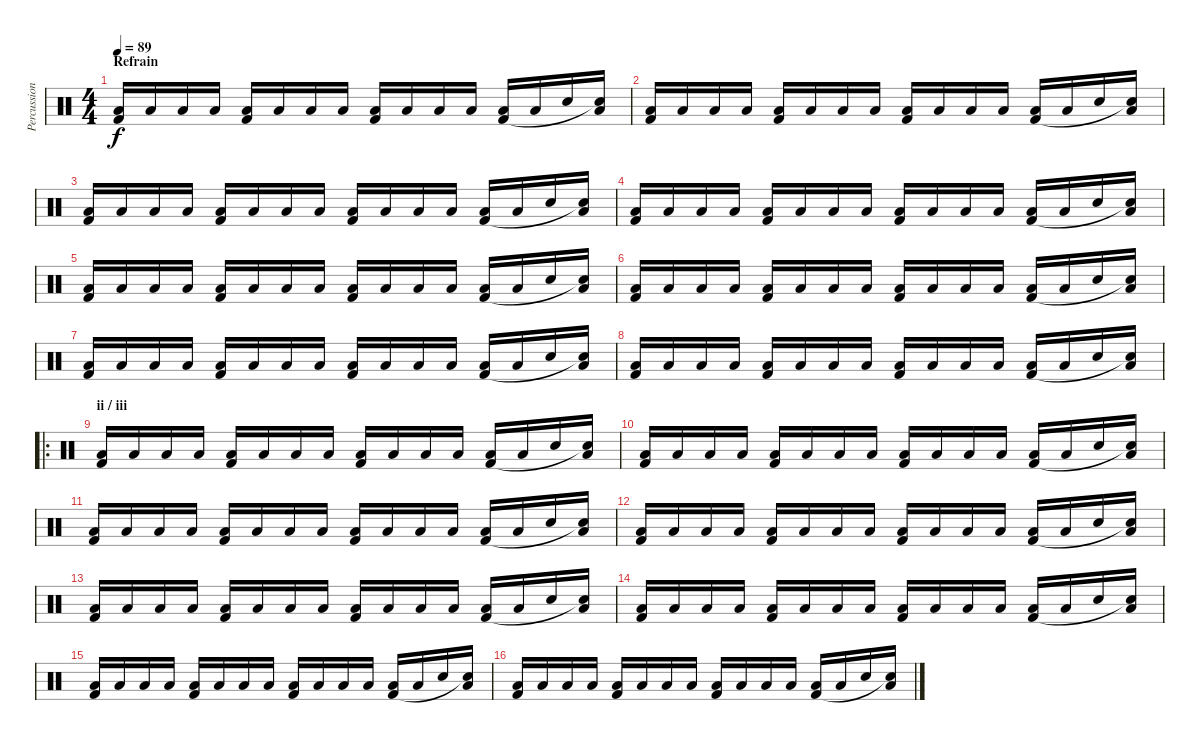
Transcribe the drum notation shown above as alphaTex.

\track ("Percussions" "Percussion") {instrument percussion}
\staff {score}
\articulation defaults
\ts (4 4)
\section ("" "Refrain")
\tempo 89
\clef neutral
\ks c
("Low Floor Tom (hit)" "Kick (hit) 2").16{dy f} "Low Floor Tom (hit)".16 "Low Floor Tom (hit)".16 "Low Floor Tom (hit)".16 ("Low Floor Tom (hit)" "Kick (hit) 2").16 "Low Floor Tom (hit)".16 "Low Floor Tom (hit)".16 "Low Floor Tom (hit)".16 ("Low Floor Tom (hit)" "Kick (hit) 2").16 "Low Floor Tom (hit)".16 "Low Floor Tom (hit)".16 "Low Floor Tom (hit)".16 ("Low Floor Tom (hit)" "Kick (hit) 2").16 "Low Floor Tom (hit)".16 "Electric Snare (hit)".16 ("Low Floor Tom (hit)" "Snare (hit)"{t}).16 |
("Low Floor Tom (hit)" "Kick (hit) 2").16 "Low Floor Tom (hit)".16 "Low Floor Tom (hit)".16 "Low Floor Tom (hit)".16 ("Low Floor Tom (hit)" "Kick (hit) 2").16 "Low Floor Tom (hit)".16 "Low Floor Tom (hit)".16 "Low Floor Tom (hit)".16 ("Low Floor Tom (hit)" "Kick (hit) 2").16 "Low Floor Tom (hit)".16 "Low Floor Tom (hit)".16 "Low Floor Tom (hit)".16 ("Low Floor Tom (hit)" "Kick (hit) 2").16 "Low Floor Tom (hit)".16 "Electric Snare (hit)".16 ("Low Floor Tom (hit)" "Snare (hit)"{t}).16 |
("Low Floor Tom (hit)" "Kick (hit) 2").16 "Low Floor Tom (hit)".16 "Low Floor Tom (hit)".16 "Low Floor Tom (hit)".16 ("Low Floor Tom (hit)" "Kick (hit) 2").16 "Low Floor Tom (hit)".16 "Low Floor Tom (hit)".16 "Low Floor Tom (hit)".16 ("Low Floor Tom (hit)" "Kick (hit) 2").16 "Low Floor Tom (hit)".16 "Low Floor Tom (hit)".16 "Low Floor Tom (hit)".16 ("Low Floor Tom (hit)" "Kick (hit) 2").16 "Low Floor Tom (hit)".16 "Electric Snare (hit)".16 ("Low Floor Tom (hit)" "Snare (hit)"{t}).16 |
("Low Floor Tom (hit)" "Kick (hit) 2").16 "Low Floor Tom (hit)".16 "Low Floor Tom (hit)".16 "Low Floor Tom (hit)".16 ("Low Floor Tom (hit)" "Kick (hit) 2").16 "Low Floor Tom (hit)".16 "Low Floor Tom (hit)".16 "Low Floor Tom (hit)".16 ("Low Floor Tom (hit)" "Kick (hit) 2").16 "Low Floor Tom (hit)".16 "Low Floor Tom (hit)".16 "Low Floor Tom (hit)".16 ("Low Floor Tom (hit)" "Kick (hit) 2").16 "Low Floor Tom (hit)".16 "Electric Snare (hit)".16 ("Low Floor Tom (hit)" "Snare (hit)"{t}).16 |
("Low Floor Tom (hit)" "Kick (hit) 2").16 "Low Floor Tom (hit)".16 "Low Floor Tom (hit)".16 "Low Floor Tom (hit)".16 ("Low Floor Tom (hit)" "Kick (hit) 2").16 "Low Floor Tom (hit)".16 "Low Floor Tom (hit)".16 "Low Floor Tom (hit)".16 ("Low Floor Tom (hit)" "Kick (hit) 2").16 "Low Floor Tom (hit)".16 "Low Floor Tom (hit)".16 "Low Floor Tom (hit)".16 ("Low Floor Tom (hit)" "Kick (hit) 2").16 "Low Floor Tom (hit)".16 "Electric Snare (hit)".16 ("Low Floor Tom (hit)" "Snare (hit)"{t}).16 |
("Low Floor Tom (hit)" "Kick (hit) 2").16 "Low Floor Tom (hit)".16 "Low Floor Tom (hit)".16 "Low Floor Tom (hit)".16 ("Low Floor Tom (hit)" "Kick (hit) 2").16 "Low Floor Tom (hit)".16 "Low Floor Tom (hit)".16 "Low Floor Tom (hit)".16 ("Low Floor Tom (hit)" "Kick (hit) 2").16 "Low Floor Tom (hit)".16 "Low Floor Tom (hit)".16 "Low Floor Tom (hit)".16 ("Low Floor Tom (hit)" "Kick (hit) 2").16 "Low Floor Tom (hit)".16 "Electric Snare (hit)".16 ("Low Floor Tom (hit)" "Snare (hit)"{t}).16 |
("Low Floor Tom (hit)" "Kick (hit) 2").16 "Low Floor Tom (hit)".16 "Low Floor Tom (hit)".16 "Low Floor Tom (hit)".16 ("Low Floor Tom (hit)" "Kick (hit) 2").16 "Low Floor Tom (hit)".16 "Low Floor Tom (hit)".16 "Low Floor Tom (hit)".16 ("Low Floor Tom (hit)" "Kick (hit) 2").16 "Low Floor Tom (hit)".16 "Low Floor Tom (hit)".16 "Low Floor Tom (hit)".16 ("Low Floor Tom (hit)" "Kick (hit) 2").16 "Low Floor Tom (hit)".16 "Electric Snare (hit)".16 ("Low Floor Tom (hit)" "Snare (hit)"{t}).16 |
("Low Floor Tom (hit)" "Kick (hit) 2").16 "Low Floor Tom (hit)".16 "Low Floor Tom (hit)".16 "Low Floor Tom (hit)".16 ("Low Floor Tom (hit)" "Kick (hit) 2").16 "Low Floor Tom (hit)".16 "Low Floor Tom (hit)".16 "Low Floor Tom (hit)".16 ("Low Floor Tom (hit)" "Kick (hit) 2").16 "Low Floor Tom (hit)".16 "Low Floor Tom (hit)".16 "Low Floor Tom (hit)".16 ("Low Floor Tom (hit)" "Kick (hit) 2").16 "Low Floor Tom (hit)".16 "Electric Snare (hit)".16 ("Low Floor Tom (hit)" "Snare (hit)"{t}).16 |
\ro
\section ("" "ii / iii")
("Low Floor Tom (hit)" "Kick (hit) 2").16 "Low Floor Tom (hit)".16 "Low Floor Tom (hit)".16 "Low Floor Tom (hit)".16 ("Low Floor Tom (hit)" "Kick (hit) 2").16 "Low Floor Tom (hit)".16 "Low Floor Tom (hit)".16 "Low Floor Tom (hit)".16 ("Low Floor Tom (hit)" "Kick (hit) 2").16 "Low Floor Tom (hit)".16 "Low Floor Tom (hit)".16 "Low Floor Tom (hit)".16 ("Low Floor Tom (hit)" "Kick (hit) 2").16 "Low Floor Tom (hit)".16 "Electric Snare (hit)".16 ("Low Floor Tom (hit)" "Snare (hit)"{t}).16 |
("Low Floor Tom (hit)" "Kick (hit) 2").16 "Low Floor Tom (hit)".16 "Low Floor Tom (hit)".16 "Low Floor Tom (hit)".16 ("Low Floor Tom (hit)" "Kick (hit) 2").16 "Low Floor Tom (hit)".16 "Low Floor Tom (hit)".16 "Low Floor Tom (hit)".16 ("Low Floor Tom (hit)" "Kick (hit) 2").16 "Low Floor Tom (hit)".16 "Low Floor Tom (hit)".16 "Low Floor Tom (hit)".16 ("Low Floor Tom (hit)" "Kick (hit) 2").16 "Low Floor Tom (hit)".16 "Electric Snare (hit)".16 ("Low Floor Tom (hit)" "Snare (hit)"{t}).16 |
("Low Floor Tom (hit)" "Kick (hit) 2").16 "Low Floor Tom (hit)".16 "Low Floor Tom (hit)".16 "Low Floor Tom (hit)".16 ("Low Floor Tom (hit)" "Kick (hit) 2").16 "Low Floor Tom (hit)".16 "Low Floor Tom (hit)".16 "Low Floor Tom (hit)".16 ("Low Floor Tom (hit)" "Kick (hit) 2").16 "Low Floor Tom (hit)".16 "Low Floor Tom (hit)".16 "Low Floor Tom (hit)".16 ("Low Floor Tom (hit)" "Kick (hit) 2").16 "Low Floor Tom (hit)".16 "Electric Snare (hit)".16 ("Low Floor Tom (hit)" "Snare (hit)"{t}).16 |
("Low Floor Tom (hit)" "Kick (hit) 2").16 "Low Floor Tom (hit)".16 "Low Floor Tom (hit)".16 "Low Floor Tom (hit)".16 ("Low Floor Tom (hit)" "Kick (hit) 2").16 "Low Floor Tom (hit)".16 "Low Floor Tom (hit)".16 "Low Floor Tom (hit)".16 ("Low Floor Tom (hit)" "Kick (hit) 2").16 "Low Floor Tom (hit)".16 "Low Floor Tom (hit)".16 "Low Floor Tom (hit)".16 ("Low Floor Tom (hit)" "Kick (hit) 2").16 "Low Floor Tom (hit)".16 "Electric Snare (hit)".16 ("Low Floor Tom (hit)" "Snare (hit)"{t}).16 |
("Low Floor Tom (hit)" "Kick (hit) 2").16 "Low Floor Tom (hit)".16 "Low Floor Tom (hit)".16 "Low Floor Tom (hit)".16 ("Low Floor Tom (hit)" "Kick (hit) 2").16 "Low Floor Tom (hit)".16 "Low Floor Tom (hit)".16 "Low Floor Tom (hit)".16 ("Low Floor Tom (hit)" "Kick (hit) 2").16 "Low Floor Tom (hit)".16 "Low Floor Tom (hit)".16 "Low Floor Tom (hit)".16 ("Low Floor Tom (hit)" "Kick (hit) 2").16 "Low Floor Tom (hit)".16 "Electric Snare (hit)".16 ("Low Floor Tom (hit)" "Snare (hit)"{t}).16 |
("Low Floor Tom (hit)" "Kick (hit) 2").16 "Low Floor Tom (hit)".16 "Low Floor Tom (hit)".16 "Low Floor Tom (hit)".16 ("Low Floor Tom (hit)" "Kick (hit) 2").16 "Low Floor Tom (hit)".16 "Low Floor Tom (hit)".16 "Low Floor Tom (hit)".16 ("Low Floor Tom (hit)" "Kick (hit) 2").16 "Low Floor Tom (hit)".16 "Low Floor Tom (hit)".16 "Low Floor Tom (hit)".16 ("Low Floor Tom (hit)" "Kick (hit) 2").16 "Low Floor Tom (hit)".16 "Electric Snare (hit)".16 ("Low Floor Tom (hit)" "Snare (hit)"{t}).16 |
("Low Floor Tom (hit)" "Kick (hit) 2").16 "Low Floor Tom (hit)".16 "Low Floor Tom (hit)".16 "Low Floor Tom (hit)".16 ("Low Floor Tom (hit)" "Kick (hit) 2").16 "Low Floor Tom (hit)".16 "Low Floor Tom (hit)".16 "Low Floor Tom (hit)".16 ("Low Floor Tom (hit)" "Kick (hit) 2").16 "Low Floor Tom (hit)".16 "Low Floor Tom (hit)".16 "Low Floor Tom (hit)".16 ("Low Floor Tom (hit)" "Kick (hit) 2").16 "Low Floor Tom (hit)".16 "Electric Snare (hit)".16 ("Low Floor Tom (hit)" "Snare (hit)"{t}).16 |
("Low Floor Tom (hit)" "Kick (hit) 2").16 "Low Floor Tom (hit)".16 "Low Floor Tom (hit)".16 "Low Floor Tom (hit)".16 ("Low Floor Tom (hit)" "Kick (hit) 2").16 "Low Floor Tom (hit)".16 "Low Floor Tom (hit)".16 "Low Floor Tom (hit)".16 ("Low Floor Tom (hit)" "Kick (hit) 2").16 "Low Floor Tom (hit)".16 "Low Floor Tom (hit)".16 "Low Floor Tom (hit)".16 ("Low Floor Tom (hit)" "Kick (hit) 2").16 "Low Floor Tom (hit)".16 "Electric Snare (hit)".16 ("Low Floor Tom (hit)" "Snare (hit)"{t}).16
